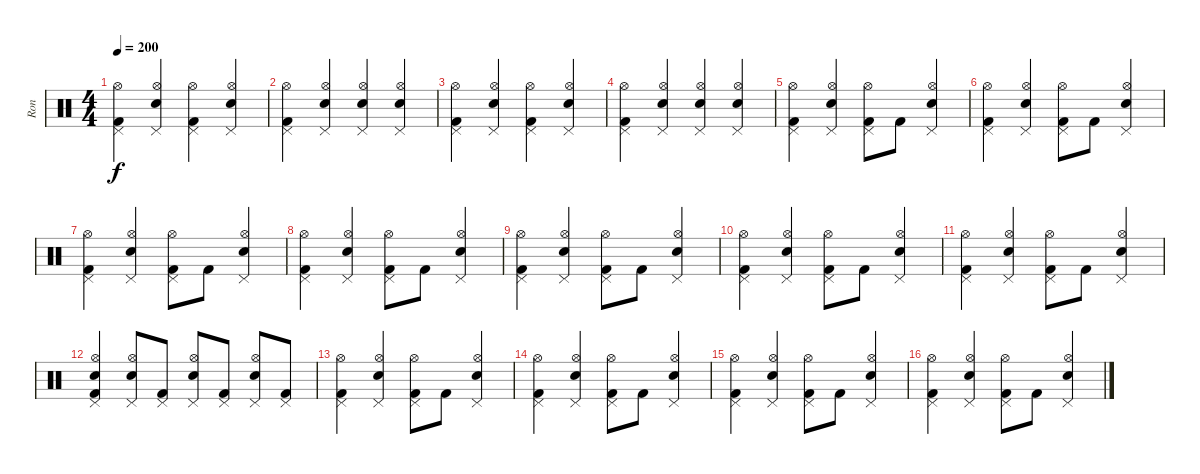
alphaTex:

\track ("Ron" "Ron") {instrument percussion}
\staff {score}
\articulation defaults
\ts (4 4)
\tempo 200
\clef neutral
\ks c
("Pedal Hi-Hat (hit)" "Kick (hit) 2" "Hi-Hat (open)").4{dy f} ("Pedal Hi-Hat (hit)" "Electric Snare (hit)" "Hi-Hat (open)").4 ("Pedal Hi-Hat (hit)" "Kick (hit) 2" "Hi-Hat (open)").4 ("Pedal Hi-Hat (hit)" "Electric Snare (hit)" "Hi-Hat (open)").4 |
("Pedal Hi-Hat (hit)" "Kick (hit) 2" "Hi-Hat (open)").4 ("Pedal Hi-Hat (hit)" "Electric Snare (hit)" "Hi-Hat (open)").4 ("Pedal Hi-Hat (hit)" "Electric Snare (hit)" "Hi-Hat (open)").4 ("Pedal Hi-Hat (hit)" "Electric Snare (hit)" "Hi-Hat (open)").4 |
("Pedal Hi-Hat (hit)" "Kick (hit) 2" "Hi-Hat (open)").4 ("Pedal Hi-Hat (hit)" "Electric Snare (hit)" "Hi-Hat (open)").4 ("Pedal Hi-Hat (hit)" "Kick (hit) 2" "Hi-Hat (open)").4 ("Pedal Hi-Hat (hit)" "Electric Snare (hit)" "Hi-Hat (open)").4 |
("Pedal Hi-Hat (hit)" "Kick (hit) 2" "Hi-Hat (open)").4 ("Pedal Hi-Hat (hit)" "Electric Snare (hit)" "Hi-Hat (open)").4 ("Pedal Hi-Hat (hit)" "Electric Snare (hit)" "Hi-Hat (open)").4 ("Pedal Hi-Hat (hit)" "Electric Snare (hit)" "Hi-Hat (open)").4 |
("Pedal Hi-Hat (hit)" "Kick (hit) 2" "Hi-Hat (open)").4 ("Electric Snare (hit)" "Pedal Hi-Hat (hit)" "Hi-Hat (open)").4 ("Pedal Hi-Hat (hit)" "Kick (hit) 2" "Hi-Hat (open)").8 "Kick (hit) 2".8 ("Electric Snare (hit)" "Pedal Hi-Hat (hit)" "Hi-Hat (open)").4 |
("Pedal Hi-Hat (hit)" "Kick (hit) 2" "Hi-Hat (open)").4 ("Electric Snare (hit)" "Pedal Hi-Hat (hit)" "Hi-Hat (open)").4 ("Pedal Hi-Hat (hit)" "Kick (hit) 2" "Hi-Hat (open)").8 "Kick (hit) 2".8 ("Electric Snare (hit)" "Pedal Hi-Hat (hit)" "Hi-Hat (open)").4 |
("Pedal Hi-Hat (hit)" "Kick (hit) 2" "Hi-Hat (open)").4 ("Electric Snare (hit)" "Pedal Hi-Hat (hit)" "Hi-Hat (open)").4 ("Pedal Hi-Hat (hit)" "Kick (hit) 2" "Hi-Hat (open)").8 "Kick (hit) 2".8 ("Electric Snare (hit)" "Pedal Hi-Hat (hit)" "Hi-Hat (open)").4 |
("Pedal Hi-Hat (hit)" "Kick (hit) 2" "Hi-Hat (open)").4 ("Electric Snare (hit)" "Pedal Hi-Hat (hit)" "Hi-Hat (open)").4 ("Pedal Hi-Hat (hit)" "Kick (hit) 2" "Hi-Hat (open)").8 "Kick (hit) 2".8 ("Electric Snare (hit)" "Pedal Hi-Hat (hit)" "Hi-Hat (open)").4 |
("Pedal Hi-Hat (hit)" "Kick (hit) 2" "Hi-Hat (open)").4 ("Electric Snare (hit)" "Pedal Hi-Hat (hit)" "Hi-Hat (open)").4 ("Pedal Hi-Hat (hit)" "Kick (hit) 2" "Hi-Hat (open)").8 "Kick (hit) 2".8 ("Electric Snare (hit)" "Pedal Hi-Hat (hit)" "Hi-Hat (open)").4 |
("Pedal Hi-Hat (hit)" "Kick (hit) 2" "Hi-Hat (open)").4 ("Electric Snare (hit)" "Pedal Hi-Hat (hit)" "Hi-Hat (open)").4 ("Pedal Hi-Hat (hit)" "Kick (hit) 2" "Hi-Hat (open)").8 "Kick (hit) 2".8 ("Electric Snare (hit)" "Pedal Hi-Hat (hit)" "Hi-Hat (open)").4 |
("Pedal Hi-Hat (hit)" "Kick (hit) 2" "Hi-Hat (open)").4 ("Electric Snare (hit)" "Pedal Hi-Hat (hit)" "Hi-Hat (open)").4 ("Pedal Hi-Hat (hit)" "Kick (hit) 2" "Hi-Hat (open)").8 "Kick (hit) 2".8 ("Electric Snare (hit)" "Pedal Hi-Hat (hit)" "Hi-Hat (open)").4 |
("Electric Snare (hit)" "Kick (hit) 2" "Pedal Hi-Hat (hit)" "Hi-Hat (open)").4 ("Electric Snare (hit)" "Pedal Hi-Hat (hit)" "Hi-Hat (open)").8 ("Kick (hit) 2" "Pedal Hi-Hat (hit)").8 ("Electric Snare (hit)" "Pedal Hi-Hat (hit)" "Hi-Hat (open)").8 ("Kick (hit) 2" "Pedal Hi-Hat (hit)").8 ("Electric Snare (hit)" "Pedal Hi-Hat (hit)" "Hi-Hat (open)").8 ("Kick (hit) 2" "Pedal Hi-Hat (hit)").8 |
("Pedal Hi-Hat (hit)" "Kick (hit) 2" "Hi-Hat (open)").4 ("Electric Snare (hit)" "Pedal Hi-Hat (hit)" "Hi-Hat (open)").4 ("Pedal Hi-Hat (hit)" "Kick (hit) 2" "Hi-Hat (open)").8 "Kick (hit) 2".8 ("Electric Snare (hit)" "Pedal Hi-Hat (hit)" "Hi-Hat (open)").4 |
("Pedal Hi-Hat (hit)" "Kick (hit) 2" "Hi-Hat (open)").4 ("Electric Snare (hit)" "Pedal Hi-Hat (hit)" "Hi-Hat (open)").4 ("Pedal Hi-Hat (hit)" "Kick (hit) 2" "Hi-Hat (open)").8 "Kick (hit) 2".8 ("Electric Snare (hit)" "Pedal Hi-Hat (hit)" "Hi-Hat (open)").4 |
("Pedal Hi-Hat (hit)" "Kick (hit) 2" "Hi-Hat (open)").4 ("Electric Snare (hit)" "Pedal Hi-Hat (hit)" "Hi-Hat (open)").4 ("Pedal Hi-Hat (hit)" "Kick (hit) 2" "Hi-Hat (open)").8 "Kick (hit) 2".8 ("Electric Snare (hit)" "Pedal Hi-Hat (hit)" "Hi-Hat (open)").4 |
("Pedal Hi-Hat (hit)" "Kick (hit) 2" "Hi-Hat (open)").4 ("Electric Snare (hit)" "Pedal Hi-Hat (hit)" "Hi-Hat (open)").4 ("Pedal Hi-Hat (hit)" "Kick (hit) 2" "Hi-Hat (open)").8 "Kick (hit) 2".8 ("Electric Snare (hit)" "Pedal Hi-Hat (hit)" "Hi-Hat (open)").4
